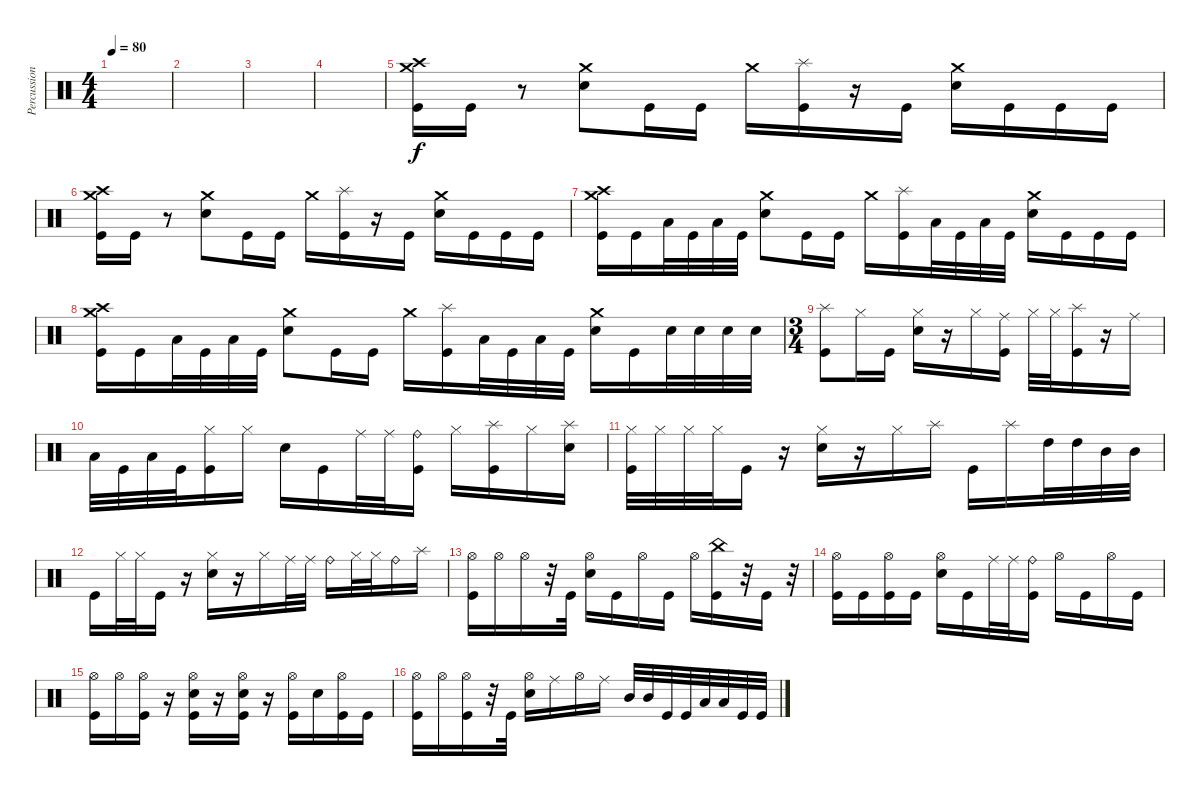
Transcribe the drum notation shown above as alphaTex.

\track ("Percussion" "Percussion") {instrument percussion}
\staff {score}
\articulation defaults
\ts (4 4)
\tempo 80
\clef neutral
\ks c
|
|
|
|
("Crash medium (hit)" "Crash high (hit)" "Kick (hit)").16 "Kick (hit)".16 r.8 ("Crash medium (hit)" "Electric Snare (hit)").8 "Kick (hit)".16 "Kick (hit)".16 "Crash medium (hit)".16 ("Splash (hit)" "Kick (hit)").16 r.16 "Kick (hit)".16 ("Crash medium (hit)" "Electric Snare (hit)").16 "Kick (hit)".16 "Kick (hit)".16 "Kick (hit)".16 |
("Crash medium (hit)" "Crash high (hit)" "Kick (hit)").16 "Kick (hit)".16 r.8 ("Crash medium (hit)" "Electric Snare (hit)").8 "Kick (hit)".16 "Kick (hit)".16 "Crash medium (hit)".16 ("Splash (hit)" "Kick (hit)").16 r.16 "Kick (hit)".16 ("Crash medium (hit)" "Electric Snare (hit)").16 "Kick (hit)".16 "Kick (hit)".16 "Kick (hit)".16 |
("Crash medium (hit)" "Crash high (hit)" "Kick (hit)").16 "Kick (hit)".16 "Low Tom (hit)".32 "Kick (hit)".32 "Low Tom (hit)".32 "Kick (hit)".32 ("Crash medium (hit)" "Electric Snare (hit)").8 "Kick (hit)".16 "Kick (hit)".16 "Crash medium (hit)".16 ("Splash (hit)" "Kick (hit)").16 "Low Tom (hit)".32 "Kick (hit)".32 "Low Tom (hit)".32 "Kick (hit)".32 ("Crash medium (hit)" "Electric Snare (hit)").16 "Kick (hit)".16 "Kick (hit)".16 "Kick (hit)".16 |
("Crash medium (hit)" "Crash high (hit)" "Kick (hit)").16 "Kick (hit)".16 "Low Tom (hit)".32 "Kick (hit)".32 "Low Tom (hit)".32 "Kick (hit)".32 ("Crash medium (hit)" "Electric Snare (hit)").8 "Kick (hit)".16 "Kick (hit)".16 "Crash medium (hit)".16 ("Splash (hit)" "Kick (hit)").16 "Low Tom (hit)".32 "Kick (hit)".32 "Low Tom (hit)".32 "Kick (hit)".32 ("Crash medium (hit)" "Electric Snare (hit)").16 "Kick (hit)".16 "Electric Snare (hit)".32 "Electric Snare (hit)".32 "Electric Snare (hit)".32 "Electric Snare (hit)".32 |
\ts (3 4)
("Splash (hit)" "Kick (hit)").8 "Hi-Hat (closed)".16 "Kick (hit)".16 ("Hi-Hat (closed)" "Electric Snare (hit)").16 r.16 "Hi-Hat (closed)".16 ("Ride (middle)" "Kick (hit)").16 "Hi-Hat (closed)".32 "Hi-Hat (closed)".32 ("Splash (hit)" "Kick (hit)").16 r.16 "Ride (middle)".16 |
"Low Tom (hit)".32 "Kick (hit)".32 "Low Tom (hit)".32 "Kick (hit)".32 ("Hi-Hat (closed)" "Kick (hit)").16 "Hi-Hat (closed)".16 "Electric Snare (hit)".16 "Kick (hit)".16 "Ride (middle)".32 "Ride (middle)".32 ("Ride (bell)" "Kick (hit)").16 "Hi-Hat (closed)".16 ("Splash (hit)" "Kick (hit)").16 "Hi-Hat (closed)".16 ("Splash (hit)" "Electric Snare (hit)").16 |
("Hi-Hat (closed)" "Kick (hit)").32 "Hi-Hat (closed)".32 "Hi-Hat (closed)".32 "Hi-Hat (closed)".32 "Kick (hit)".16 r.16 ("Hi-Hat (closed)" "Electric Snare (hit)").16 r.16 "Hi-Hat (closed)".16 "Splash (hit)".16 "Kick (hit)".16 "Splash (hit)".16 "High Tom (hit)".32 "High Tom (hit)".32 "Mid Tom (hit)".32 "Mid Tom (hit)".32 |
"Kick (hit)".16 "Hi-Hat (closed)".32 "Hi-Hat (closed)".32 "Kick (hit)".16 r.16 ("Hi-Hat (closed)" "Electric Snare (hit)").16 r.16 "Hi-Hat (closed)".16 "Ride (middle)".32 "Ride (middle)".32 "Ride (bell)".16 "Hi-Hat (closed)".32 "Hi-Hat (closed)".32 "Ride (bell)".16 "Splash (hit)".16 |
("Hi-Hat (open)" "Kick (hit)").16 "Hi-Hat (open)".16 "Hi-Hat (open)".16 r.32 "Kick (hit)".32 ("Hi-Hat (open)" "Electric Snare (hit)").16 "Kick (hit)".16 "Hi-Hat (open)".16 "Kick (hit)".16 "Hi-Hat (open)".16 ("China (hit)" "Kick (hit)").16 r.32 "Kick (hit)".16 r.32 |
("Hi-Hat (open)" "Kick (hit)").16 "Kick (hit)".16 ("Hi-Hat (open)" "Kick (hit)").16 "Kick (hit)".16 ("Hi-Hat (open)" "Electric Snare (hit)").16 "Kick (hit)".16 "Ride (middle)".32 "Ride (middle)".32 ("Ride (bell)" "Kick (hit)").16 "Hi-Hat (open)".16 "Kick (hit)".16 "Hi-Hat (open)".16 "Kick (hit)".16 |
("Hi-Hat (open)" "Kick (hit)").16 "Hi-Hat (open)".16 ("Hi-Hat (open)" "Kick (hit)").16 r.16 ("Hi-Hat (open)" "Electric Snare (hit)" "Kick (hit)").16 r.16 ("Hi-Hat (open)" "Electric Snare (hit)" "Kick (hit)").16 r.16 ("Hi-Hat (open)" "Kick (hit)").16 "Electric Snare (hit)".16 ("Hi-Hat (open)" "Kick (hit)").16 "Kick (hit)".16 |
("Hi-Hat (open)" "Kick (hit)").16 "Hi-Hat (open)".16 ("Hi-Hat (open)" "Kick (hit)").16 r.32 "Kick (hit)".32 ("Hi-Hat (open)" "Electric Snare (hit)").16 "Ride (middle)".16 "Hi-Hat (open)".16 "Ride (middle)".16 "Mid Tom (hit)".32 "Mid Tom (hit)".32 "Kick (hit)".32 "Kick (hit)".32 "Low Tom (hit)".32 "Low Tom (hit)".32 "Kick (hit)".32 "Kick (hit)".32
